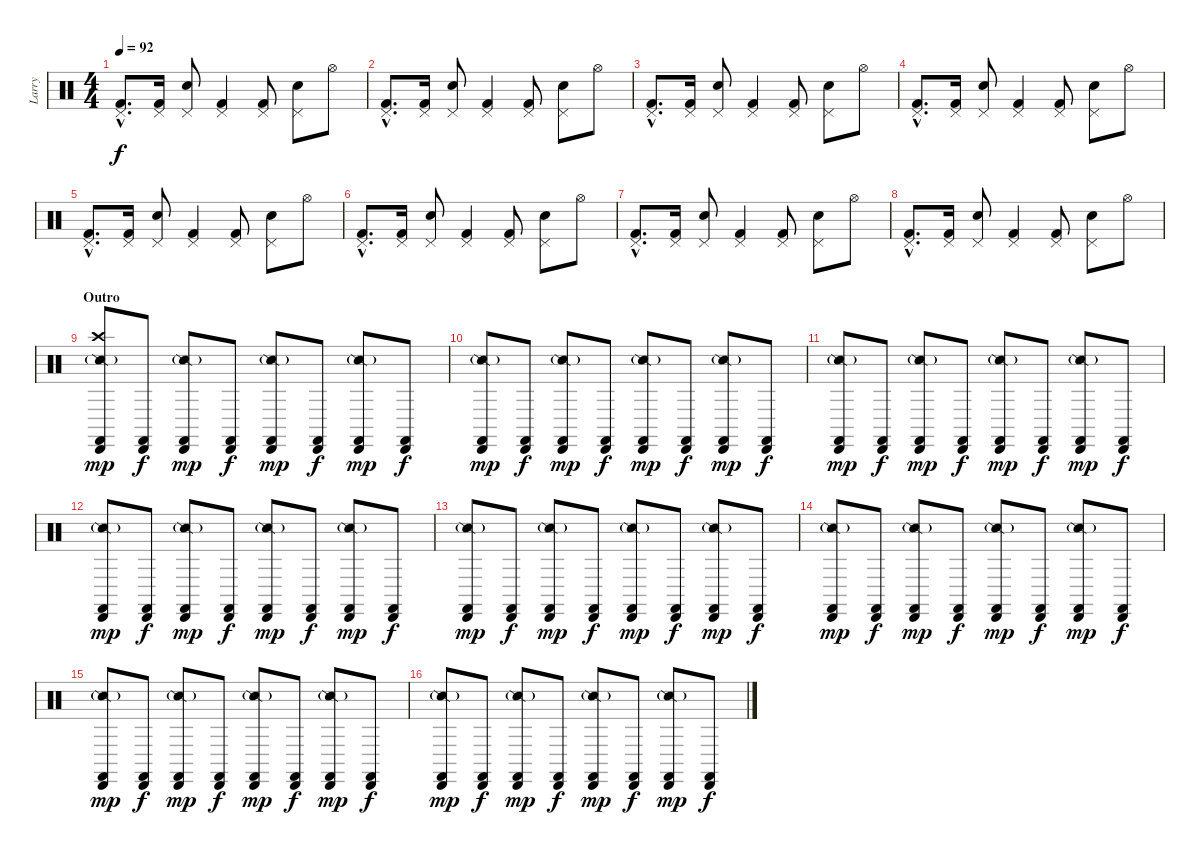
\track ("Larry" "Larry") {instrument percussion}
\staff {score}
\articulation defaults
\ts (4 4)
\tempo 92
\clef neutral
\ks c
("Pedal Hi-Hat (hit)"{hac} "Kick (hit) 2"{hac}).8{d dy f} ("Pedal Hi-Hat (hit)" "Kick (hit) 2").16 ("Pedal Hi-Hat (hit)" "Snare (hit) 2").8 ("Pedal Hi-Hat (hit)" "Kick (hit) 2").4 ("Pedal Hi-Hat (hit)" "Kick (hit) 2").8 ("Pedal Hi-Hat (hit)" "Snare (hit) 2").8 "Hi-Hat (open)".8 |
("Pedal Hi-Hat (hit)"{hac} "Kick (hit) 2"{hac}).8{d} ("Pedal Hi-Hat (hit)" "Kick (hit) 2").16 ("Pedal Hi-Hat (hit)" "Snare (hit) 2").8 ("Pedal Hi-Hat (hit)" "Kick (hit) 2").4 ("Pedal Hi-Hat (hit)" "Kick (hit) 2").8 ("Pedal Hi-Hat (hit)" "Snare (hit) 2").8 "Hi-Hat (open)".8 |
("Pedal Hi-Hat (hit)"{hac} "Kick (hit) 2"{hac}).8{d} ("Pedal Hi-Hat (hit)" "Kick (hit) 2").16 ("Pedal Hi-Hat (hit)" "Snare (hit) 2").8 ("Pedal Hi-Hat (hit)" "Kick (hit) 2").4 ("Pedal Hi-Hat (hit)" "Kick (hit) 2").8 ("Pedal Hi-Hat (hit)" "Snare (hit) 2").8 "Hi-Hat (open)".8 |
("Pedal Hi-Hat (hit)"{hac} "Kick (hit) 2"{hac}).8{d} ("Pedal Hi-Hat (hit)" "Kick (hit) 2").16 ("Pedal Hi-Hat (hit)" "Snare (hit) 2").8 ("Pedal Hi-Hat (hit)" "Kick (hit) 2").4 ("Pedal Hi-Hat (hit)" "Kick (hit) 2").8 ("Pedal Hi-Hat (hit)" "Snare (hit) 2").8 "Hi-Hat (open)".8 |
("Pedal Hi-Hat (hit)"{hac} "Kick (hit) 2"{hac}).8{d} ("Pedal Hi-Hat (hit)" "Kick (hit) 2").16 ("Pedal Hi-Hat (hit)" "Snare (hit) 2").8 ("Pedal Hi-Hat (hit)" "Kick (hit) 2").4 ("Pedal Hi-Hat (hit)" "Kick (hit) 2").8 ("Pedal Hi-Hat (hit)" "Snare (hit) 2").8 "Hi-Hat (open)".8 |
("Pedal Hi-Hat (hit)"{hac} "Kick (hit) 2"{hac}).8{d} ("Pedal Hi-Hat (hit)" "Kick (hit) 2").16 ("Pedal Hi-Hat (hit)" "Snare (hit) 2").8 ("Pedal Hi-Hat (hit)" "Kick (hit) 2").4 ("Pedal Hi-Hat (hit)" "Kick (hit) 2").8 ("Pedal Hi-Hat (hit)" "Snare (hit) 2").8 "Hi-Hat (open)".8 |
("Pedal Hi-Hat (hit)"{hac} "Kick (hit) 2"{hac}).8{d} ("Pedal Hi-Hat (hit)" "Kick (hit) 2").16 ("Pedal Hi-Hat (hit)" "Snare (hit) 2").8 ("Pedal Hi-Hat (hit)" "Kick (hit) 2").4 ("Pedal Hi-Hat (hit)" "Kick (hit) 2").8 ("Pedal Hi-Hat (hit)" "Snare (hit) 2").8 "Hi-Hat (open)".8 |
("Pedal Hi-Hat (hit)"{hac} "Kick (hit) 2"{hac}).8{d} ("Pedal Hi-Hat (hit)" "Kick (hit) 2").16 ("Pedal Hi-Hat (hit)" "Snare (hit) 2").8 ("Pedal Hi-Hat (hit)" "Kick (hit) 2").4 ("Pedal Hi-Hat (hit)" "Kick (hit) 2").8 ("Pedal Hi-Hat (hit)" "Snare (hit) 2").8 "Hi-Hat (open)".8 |
\section ("" "Outro")
("Crash high (hit)" "Snare (side stick) 2"{g} "Castanets (hit)" "Cabasa (hit)").8{dy mp} ("Castanets (hit)" "Cabasa (hit)").8{dy f} ("Snare (side stick) 2"{g} "Castanets (hit)" "Cabasa (hit)").8{dy mp} ("Castanets (hit)" "Cabasa (hit)").8{dy f} ("Snare (side stick) 2"{g} "Castanets (hit)" "Cabasa (hit)").8{dy mp} ("Castanets (hit)" "Cabasa (hit)").8{dy f} ("Snare (side stick) 2"{g} "Castanets (hit)" "Cabasa (hit)").8{dy mp} ("Castanets (hit)" "Cabasa (hit)").8{dy f} |
("Snare (side stick) 2"{g} "Castanets (hit)" "Cabasa (hit)").8{dy mp} ("Castanets (hit)" "Cabasa (hit)").8{dy f} ("Snare (side stick) 2"{g} "Castanets (hit)" "Cabasa (hit)").8{dy mp} ("Castanets (hit)" "Cabasa (hit)").8{dy f} ("Snare (side stick) 2"{g} "Castanets (hit)" "Cabasa (hit)").8{dy mp} ("Castanets (hit)" "Cabasa (hit)").8{dy f} ("Snare (side stick) 2"{g} "Castanets (hit)" "Cabasa (hit)").8{dy mp} ("Castanets (hit)" "Cabasa (hit)").8{dy f} |
("Snare (side stick) 2"{g} "Castanets (hit)" "Cabasa (hit)").8{dy mp} ("Castanets (hit)" "Cabasa (hit)").8{dy f} ("Snare (side stick) 2"{g} "Castanets (hit)" "Cabasa (hit)").8{dy mp} ("Castanets (hit)" "Cabasa (hit)").8{dy f} ("Snare (side stick) 2"{g} "Castanets (hit)" "Cabasa (hit)").8{dy mp} ("Castanets (hit)" "Cabasa (hit)").8{dy f} ("Snare (side stick) 2"{g} "Castanets (hit)" "Cabasa (hit)").8{dy mp} ("Castanets (hit)" "Cabasa (hit)").8{dy f} |
("Snare (side stick) 2"{g} "Castanets (hit)" "Cabasa (hit)").8{dy mp} ("Castanets (hit)" "Cabasa (hit)").8{dy f} ("Snare (side stick) 2"{g} "Castanets (hit)" "Cabasa (hit)").8{dy mp} ("Castanets (hit)" "Cabasa (hit)").8{dy f} ("Snare (side stick) 2"{g} "Castanets (hit)" "Cabasa (hit)").8{dy mp} ("Castanets (hit)" "Cabasa (hit)").8{dy f} ("Snare (side stick) 2"{g} "Castanets (hit)" "Cabasa (hit)").8{dy mp} ("Castanets (hit)" "Cabasa (hit)").8{dy f} |
("Snare (side stick) 2"{g} "Castanets (hit)" "Cabasa (hit)").8{dy mp} ("Castanets (hit)" "Cabasa (hit)").8{dy f} ("Snare (side stick) 2"{g} "Castanets (hit)" "Cabasa (hit)").8{dy mp} ("Castanets (hit)" "Cabasa (hit)").8{dy f} ("Snare (side stick) 2"{g} "Castanets (hit)" "Cabasa (hit)").8{dy mp} ("Castanets (hit)" "Cabasa (hit)").8{dy f} ("Snare (side stick) 2"{g} "Castanets (hit)" "Cabasa (hit)").8{dy mp} ("Castanets (hit)" "Cabasa (hit)").8{dy f} |
("Snare (side stick) 2"{g} "Castanets (hit)" "Cabasa (hit)").8{dy mp} ("Castanets (hit)" "Cabasa (hit)").8{dy f} ("Snare (side stick) 2"{g} "Castanets (hit)" "Cabasa (hit)").8{dy mp} ("Castanets (hit)" "Cabasa (hit)").8{dy f} ("Snare (side stick) 2"{g} "Castanets (hit)" "Cabasa (hit)").8{dy mp} ("Castanets (hit)" "Cabasa (hit)").8{dy f} ("Snare (side stick) 2"{g} "Castanets (hit)" "Cabasa (hit)").8{dy mp} ("Castanets (hit)" "Cabasa (hit)").8{dy f} |
("Snare (side stick) 2"{g} "Castanets (hit)" "Cabasa (hit)").8{dy mp} ("Castanets (hit)" "Cabasa (hit)").8{dy f} ("Snare (side stick) 2"{g} "Castanets (hit)" "Cabasa (hit)").8{dy mp} ("Castanets (hit)" "Cabasa (hit)").8{dy f} ("Snare (side stick) 2"{g} "Castanets (hit)" "Cabasa (hit)").8{dy mp} ("Castanets (hit)" "Cabasa (hit)").8{dy f} ("Snare (side stick) 2"{g} "Castanets (hit)" "Cabasa (hit)").8{dy mp} ("Castanets (hit)" "Cabasa (hit)").8{dy f} |
("Snare (side stick) 2"{g} "Castanets (hit)" "Cabasa (hit)").8{dy mp} ("Castanets (hit)" "Cabasa (hit)").8{dy f} ("Snare (side stick) 2"{g} "Castanets (hit)" "Cabasa (hit)").8{dy mp} ("Castanets (hit)" "Cabasa (hit)").8{dy f} ("Snare (side stick) 2"{g} "Castanets (hit)" "Cabasa (hit)").8{dy mp} ("Castanets (hit)" "Cabasa (hit)").8{dy f} ("Snare (side stick) 2"{g} "Castanets (hit)" "Cabasa (hit)").8{dy mp} ("Castanets (hit)" "Cabasa (hit)").8{dy f}
